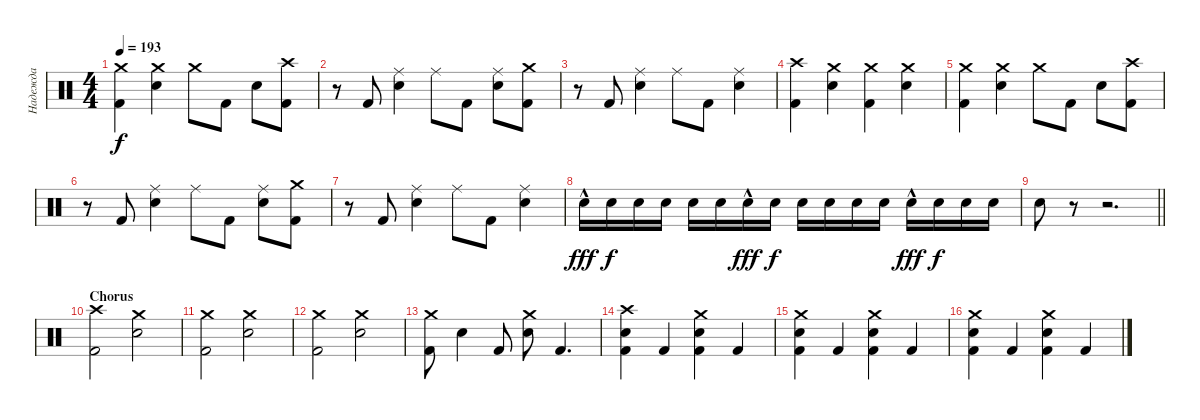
\track ("Надежда" "Надежда") {instrument percussion}
\staff {score}
\articulation defaults
\ts (4 4)
\tempo 193
\clef neutral
\ks c
("Crash medium (hit)" "Kick (hit) 2").4{dy f} ("Crash medium (hit)" "Snare (hit) 2").4 "Crash medium (hit)".8 "Kick (hit) 2".8 "Snare (hit) 2".8 ("Crash high (hit)" "Kick (hit) 2").8 |
r.8 "Kick (hit) 2".8 ("Ride (middle)" "Snare (hit) 2").4 "Ride (middle)".8 "Kick (hit) 2".8 ("Ride (middle)" "Snare (hit) 2").8 ("Crash medium (hit)" "Kick (hit) 2").8 |
r.8 "Kick (hit) 2".8 ("Ride (middle)" "Snare (hit) 2").4 "Ride (middle)".8 "Kick (hit) 2".8 ("Ride (middle)" "Snare (hit) 2").4 |
("Crash high (hit)" "Kick (hit) 2").4 ("Crash medium (hit)" "Snare (hit) 2").4 ("Crash medium (hit)" "Kick (hit) 2").4 ("Crash medium (hit)" "Snare (hit) 2").4 |
("Crash medium (hit)" "Kick (hit) 2").4 ("Crash medium (hit)" "Snare (hit) 2").4 "Crash medium (hit)".8 "Kick (hit) 2".8 "Snare (hit) 2".8 ("Crash high (hit)" "Kick (hit) 2").8 |
r.8 "Kick (hit) 2".8 ("Ride (middle)" "Snare (hit) 2").4 "Ride (middle)".8 "Kick (hit) 2".8 ("Ride (middle)" "Snare (hit) 2").8 ("Crash medium (hit)" "Kick (hit) 2").8 |
r.8 "Kick (hit) 2".8 ("Ride (middle)" "Snare (hit) 2").4 "Ride (middle)".8 "Kick (hit) 2".8 ("Ride (middle)" "Snare (hit) 2").4 |
"Snare (hit) 2"{hac}.16{dy fff} "Snare (hit) 2".16{dy f} "Snare (hit) 2".16 "Snare (hit) 2".16 "Snare (hit) 2".16 "Snare (hit) 2".16 "Snare (hit) 2"{hac}.16{dy fff} "Snare (hit) 2".16{dy f} "Snare (hit) 2".16 "Snare (hit) 2".16 "Snare (hit) 2".16 "Snare (hit) 2".16 "Snare (hit) 2"{hac}.16{dy fff} "Snare (hit) 2".16{dy f} "Snare (hit) 2".16 "Snare (hit) 2".16 |
\barLineRight lightlight "Snare (hit) 2".8
r.8 r.2{d} |
\section ("" "Chorus")
("Crash high (hit)" "Kick (hit) 2").2 ("Crash medium (hit)" "Snare (hit) 2").2 |
("Crash medium (hit)" "Kick (hit) 2").2 ("Crash medium (hit)" "Snare (hit) 2").2 |
("Crash medium (hit)" "Kick (hit) 2").2 ("Crash medium (hit)" "Snare (hit) 2").2 |
("Crash medium (hit)" "Kick (hit) 2").8 "Snare (hit) 2".4 "Kick (hit) 2".8 ("Crash medium (hit)" "Snare (hit) 2").8 "Kick (hit) 2".4{d} |
("Crash high (hit)" "Snare (hit) 2" "Kick (hit) 2").4 "Kick (hit) 2".4 ("Crash medium (hit)" "Snare (hit) 2" "Kick (hit) 2").4 "Kick (hit) 2".4 |
("Crash medium (hit)" "Snare (hit) 2" "Kick (hit) 2").4 "Kick (hit) 2".4 ("Crash medium (hit)" "Snare (hit) 2" "Kick (hit) 2").4 "Kick (hit) 2".4 |
("Crash medium (hit)" "Snare (hit) 2" "Kick (hit) 2").4 "Kick (hit) 2".4 ("Crash medium (hit)" "Snare (hit) 2" "Kick (hit) 2").4 "Kick (hit) 2".4
